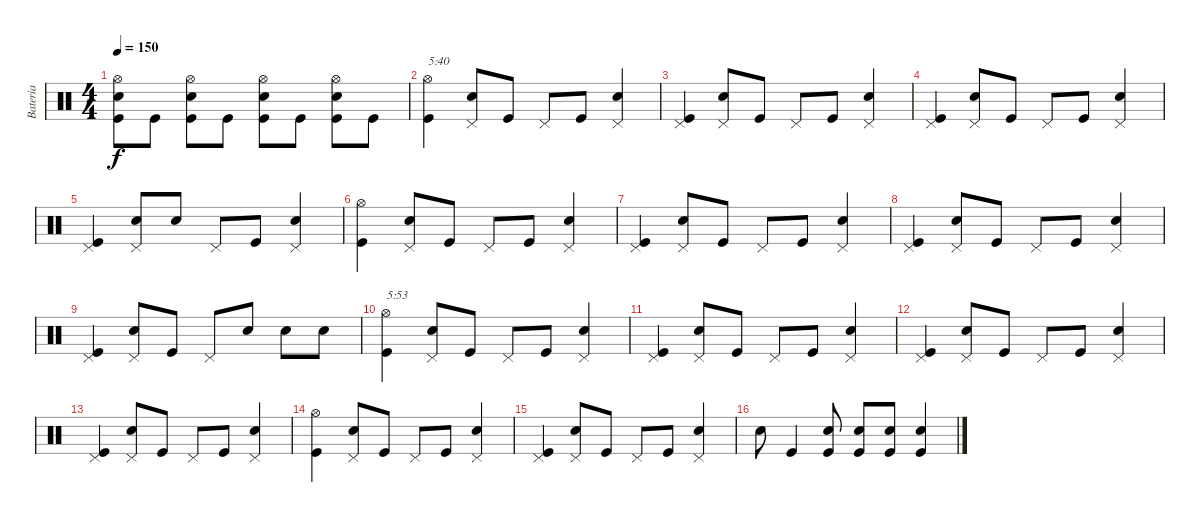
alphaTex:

\track ("Bateria" "Bateria") {instrument percussion}
\staff {score}
\articulation defaults
\ts (4 4)
\tempo 150
\clef neutral
\ks c
("Kick (hit)" "Snare (hit) 2" "Hi-Hat (open)").8{dy f} "Kick (hit)".8 ("Kick (hit)" "Snare (hit) 2" "Hi-Hat (open)").8 "Kick (hit)".8 ("Kick (hit)" "Snare (hit) 2" "Hi-Hat (open)").8 "Kick (hit)".8 ("Kick (hit)" "Snare (hit) 2" "Hi-Hat (open)").8 "Kick (hit)".8 |
("Kick (hit)" "Hi-Hat (open)").4{txt "5:40"} ("Snare (hit) 2" "Pedal Hi-Hat (hit)").8 "Kick (hit)".8 "Pedal Hi-Hat (hit)".8 "Kick (hit)".8 ("Snare (hit) 2" "Pedal Hi-Hat (hit)").4 |
("Kick (hit)" "Pedal Hi-Hat (hit)").4 ("Snare (hit) 2" "Pedal Hi-Hat (hit)").8 "Kick (hit)".8 "Pedal Hi-Hat (hit)".8 "Kick (hit)".8 ("Snare (hit) 2" "Pedal Hi-Hat (hit)").4 |
("Kick (hit)" "Pedal Hi-Hat (hit)").4 ("Snare (hit) 2" "Pedal Hi-Hat (hit)").8 "Kick (hit)".8 "Pedal Hi-Hat (hit)".8 "Kick (hit)".8 ("Snare (hit) 2" "Pedal Hi-Hat (hit)").4 |
("Kick (hit)" "Pedal Hi-Hat (hit)").4 ("Snare (hit) 2" "Pedal Hi-Hat (hit)").8 "Snare (hit) 2".8 "Pedal Hi-Hat (hit)".8 "Kick (hit)".8 ("Snare (hit) 2" "Pedal Hi-Hat (hit)").4 |
("Kick (hit)" "Hi-Hat (open)").4 ("Snare (hit) 2" "Pedal Hi-Hat (hit)").8 "Kick (hit)".8 "Pedal Hi-Hat (hit)".8 "Kick (hit)".8 ("Snare (hit) 2" "Pedal Hi-Hat (hit)").4 |
("Kick (hit)" "Pedal Hi-Hat (hit)").4 ("Snare (hit) 2" "Pedal Hi-Hat (hit)").8 "Kick (hit)".8 "Pedal Hi-Hat (hit)".8 "Kick (hit)".8 ("Snare (hit) 2" "Pedal Hi-Hat (hit)").4 |
("Kick (hit)" "Pedal Hi-Hat (hit)").4 ("Snare (hit) 2" "Pedal Hi-Hat (hit)").8 "Kick (hit)".8 "Pedal Hi-Hat (hit)".8 "Kick (hit)".8 ("Snare (hit) 2" "Pedal Hi-Hat (hit)").4 |
("Kick (hit)" "Pedal Hi-Hat (hit)").4 ("Snare (hit) 2" "Pedal Hi-Hat (hit)").8 "Kick (hit)".8 "Pedal Hi-Hat (hit)".8 "Snare (hit) 2".8 "Snare (hit) 2".8 "Snare (hit) 2".8 |
("Kick (hit)" "Hi-Hat (open)").4{txt "5:53"} ("Snare (hit) 2" "Pedal Hi-Hat (hit)").8 "Kick (hit)".8 "Pedal Hi-Hat (hit)".8 "Kick (hit)".8 ("Snare (hit) 2" "Pedal Hi-Hat (hit)").4 |
("Kick (hit)" "Pedal Hi-Hat (hit)").4 ("Snare (hit) 2" "Pedal Hi-Hat (hit)").8 "Kick (hit)".8 "Pedal Hi-Hat (hit)".8 "Kick (hit)".8 ("Snare (hit) 2" "Pedal Hi-Hat (hit)").4 |
("Kick (hit)" "Pedal Hi-Hat (hit)").4 ("Snare (hit) 2" "Pedal Hi-Hat (hit)").8 "Kick (hit)".8 "Pedal Hi-Hat (hit)".8 "Kick (hit)".8 ("Snare (hit) 2" "Pedal Hi-Hat (hit)").4 |
("Kick (hit)" "Pedal Hi-Hat (hit)").4 ("Snare (hit) 2" "Pedal Hi-Hat (hit)").8 "Kick (hit)".8 "Pedal Hi-Hat (hit)".8 "Kick (hit)".8 ("Snare (hit) 2" "Pedal Hi-Hat (hit)").4 |
("Kick (hit)" "Hi-Hat (open)").4 ("Snare (hit) 2" "Pedal Hi-Hat (hit)").8 "Kick (hit)".8 "Pedal Hi-Hat (hit)".8 "Kick (hit)".8 ("Snare (hit) 2" "Pedal Hi-Hat (hit)").4 |
("Kick (hit)" "Pedal Hi-Hat (hit)").4 ("Snare (hit) 2" "Pedal Hi-Hat (hit)").8 "Kick (hit)".8 "Pedal Hi-Hat (hit)".8 "Kick (hit)".8 ("Snare (hit) 2" "Pedal Hi-Hat (hit)").4 |
"Snare (hit) 2".8 "Kick (hit)".4 ("Kick (hit)" "Snare (hit) 2").8 ("Kick (hit)" "Snare (hit) 2").8 ("Kick (hit)" "Snare (hit) 2").8 ("Kick (hit)" "Snare (hit) 2").4
